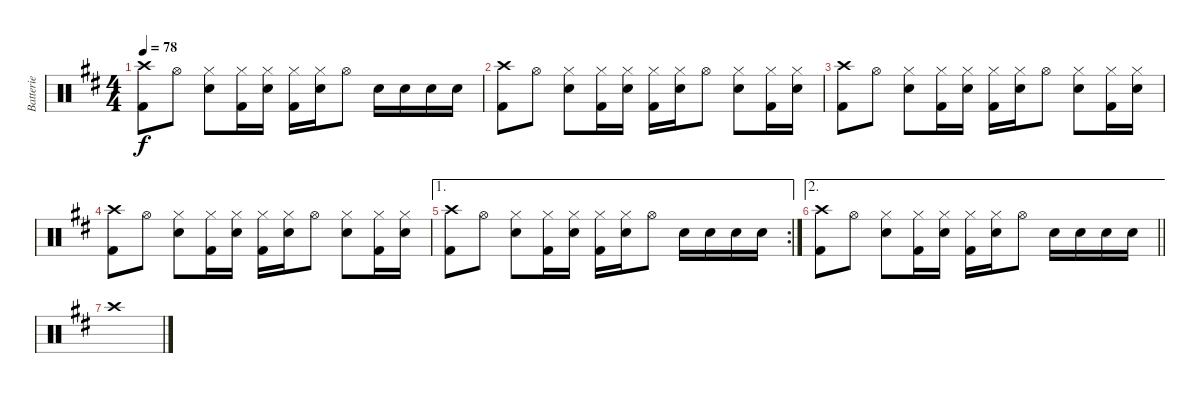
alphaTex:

\track ("Batterie" "Batterie") {instrument percussion}
\staff {score}
\articulation defaults
\ts (4 4)
\tempo 78
\clef neutral
\ks d
("Crash high (hit)" "Kick (hit) 2").8{dy f} "Hi-Hat (open)".8 ("Hi-Hat (closed)" "Snare (hit) 2").8 ("Hi-Hat (closed)" "Kick (hit) 2").16 ("Hi-Hat (closed)" "Snare (hit) 2").16 ("Hi-Hat (closed)" "Kick (hit) 2").16 ("Hi-Hat (closed)" "Snare (hit) 2").16 "Hi-Hat (open)".8 "Snare (hit) 2".16 "Snare (hit) 2".16 "Snare (hit) 2".16 "Snare (hit) 2".16 |
("Crash high (hit)" "Kick (hit) 2").8 "Hi-Hat (open)".8 ("Hi-Hat (closed)" "Snare (hit) 2").8 ("Hi-Hat (closed)" "Kick (hit) 2").16 ("Hi-Hat (closed)" "Snare (hit) 2").16 ("Hi-Hat (closed)" "Kick (hit) 2").16 ("Hi-Hat (closed)" "Snare (hit) 2").16 "Hi-Hat (open)".8 ("Hi-Hat (closed)" "Snare (hit) 2").8 ("Hi-Hat (closed)" "Kick (hit) 2").16 ("Hi-Hat (closed)" "Snare (hit) 2").16 |
("Crash high (hit)" "Kick (hit) 2").8 "Hi-Hat (open)".8 ("Hi-Hat (closed)" "Snare (hit) 2").8 ("Hi-Hat (closed)" "Kick (hit) 2").16 ("Hi-Hat (closed)" "Snare (hit) 2").16 ("Hi-Hat (closed)" "Kick (hit) 2").16 ("Hi-Hat (closed)" "Snare (hit) 2").16 "Hi-Hat (open)".8 ("Hi-Hat (closed)" "Snare (hit) 2").8 ("Hi-Hat (closed)" "Kick (hit) 2").16 ("Hi-Hat (closed)" "Snare (hit) 2").16 |
("Crash high (hit)" "Kick (hit) 2").8 "Hi-Hat (open)".8 ("Hi-Hat (closed)" "Snare (hit) 2").8 ("Hi-Hat (closed)" "Kick (hit) 2").16 ("Hi-Hat (closed)" "Snare (hit) 2").16 ("Hi-Hat (closed)" "Kick (hit) 2").16 ("Hi-Hat (closed)" "Snare (hit) 2").16 "Hi-Hat (open)".8 ("Hi-Hat (closed)" "Snare (hit) 2").8 ("Hi-Hat (closed)" "Kick (hit) 2").16 ("Hi-Hat (closed)" "Snare (hit) 2").16 |
\ae 1
\rc 2
("Crash high (hit)" "Kick (hit) 2").8 "Hi-Hat (open)".8 ("Hi-Hat (closed)" "Snare (hit) 2").8 ("Hi-Hat (closed)" "Kick (hit) 2").16 ("Hi-Hat (closed)" "Snare (hit) 2").16 ("Hi-Hat (closed)" "Kick (hit) 2").16 ("Hi-Hat (closed)" "Snare (hit) 2").16 "Hi-Hat (open)".8 "Snare (hit) 2".16 "Snare (hit) 2".16 "Snare (hit) 2".16 "Snare (hit) 2".16 |
\ae 2
\barLineRight lightlight
("Crash high (hit)" "Kick (hit) 2").8 "Hi-Hat (open)".8 ("Hi-Hat (closed)" "Snare (hit) 2").8 ("Hi-Hat (closed)" "Kick (hit) 2").16 ("Hi-Hat (closed)" "Snare (hit) 2").16 ("Hi-Hat (closed)" "Kick (hit) 2").16 ("Hi-Hat (closed)" "Snare (hit) 2").16 "Hi-Hat (open)".8 "Snare (hit) 2".16 "Snare (hit) 2".16 "Snare (hit) 2".16 "Snare (hit) 2".16 |
"Crash high (hit)".1
